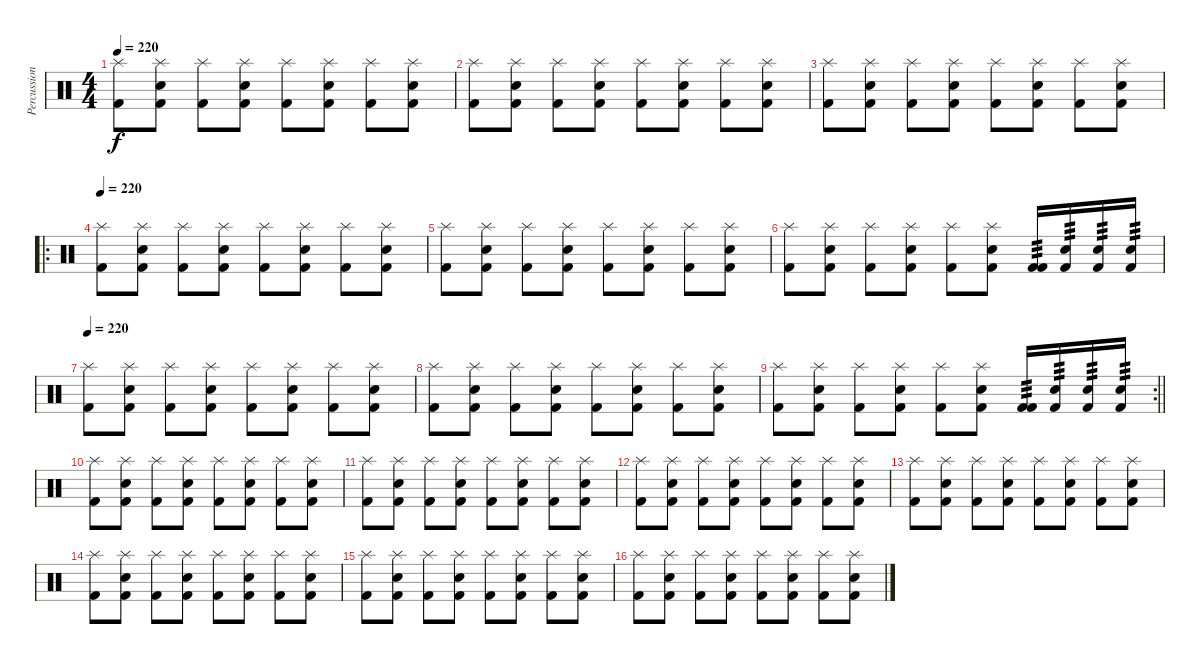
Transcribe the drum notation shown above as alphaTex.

\track ("Percussions" "Percussion") {instrument percussion}
\staff {score}
\articulation defaults
\ts (4 4)
\tempo 220
\clef neutral
\ks c
("Kick (hit) 2" "Splash (hit)").8{dy f} ("Kick (hit) 2" "Electric Snare (hit)" "Splash (hit)").8 ("Kick (hit) 2" "Splash (hit)").8 ("Kick (hit) 2" "Electric Snare (hit)" "Splash (hit)").8 ("Kick (hit) 2" "Splash (hit)").8 ("Kick (hit) 2" "Electric Snare (hit)" "Splash (hit)").8 ("Kick (hit) 2" "Splash (hit)").8 ("Kick (hit) 2" "Electric Snare (hit)" "Splash (hit)").8 |
("Kick (hit) 2" "Splash (hit)").8 ("Kick (hit) 2" "Electric Snare (hit)" "Splash (hit)").8 ("Kick (hit) 2" "Splash (hit)").8 ("Kick (hit) 2" "Electric Snare (hit)" "Splash (hit)").8 ("Kick (hit) 2" "Splash (hit)").8 ("Kick (hit) 2" "Electric Snare (hit)" "Splash (hit)").8 ("Kick (hit) 2" "Splash (hit)").8 ("Kick (hit) 2" "Electric Snare (hit)" "Splash (hit)").8 |
("Kick (hit) 2" "Splash (hit)").8 ("Kick (hit) 2" "Electric Snare (hit)" "Splash (hit)").8 ("Kick (hit) 2" "Splash (hit)").8 ("Kick (hit) 2" "Electric Snare (hit)" "Splash (hit)").8 ("Kick (hit) 2" "Splash (hit)").8 ("Kick (hit) 2" "Electric Snare (hit)" "Splash (hit)").8 ("Kick (hit) 2" "Splash (hit)").8 ("Kick (hit) 2" "Electric Snare (hit)" "Splash (hit)").8 |
\ro
\tempo 220
("Kick (hit) 2" "Splash (hit)").8 ("Kick (hit) 2" "Electric Snare (hit)" "Splash (hit)").8 ("Kick (hit) 2" "Splash (hit)").8 ("Kick (hit) 2" "Electric Snare (hit)" "Splash (hit)").8 ("Kick (hit) 2" "Splash (hit)").8 ("Kick (hit) 2" "Electric Snare (hit)" "Splash (hit)").8 ("Kick (hit) 2" "Splash (hit)").8 ("Kick (hit) 2" "Electric Snare (hit)" "Splash (hit)").8 |
("Kick (hit) 2" "Splash (hit)").8 ("Kick (hit) 2" "Electric Snare (hit)" "Splash (hit)").8 ("Kick (hit) 2" "Splash (hit)").8 ("Kick (hit) 2" "Electric Snare (hit)" "Splash (hit)").8 ("Kick (hit) 2" "Splash (hit)").8 ("Kick (hit) 2" "Electric Snare (hit)" "Splash (hit)").8 ("Kick (hit) 2" "Splash (hit)").8 ("Kick (hit) 2" "Electric Snare (hit)" "Splash (hit)").8 |
("Kick (hit) 2" "Splash (hit)").8 ("Kick (hit) 2" "Electric Snare (hit)" "Splash (hit)").8 ("Kick (hit) 2" "Splash (hit)").8 ("Kick (hit) 2" "Electric Snare (hit)" "Splash (hit)").8 ("Kick (hit) 2" "Splash (hit)").8 ("Kick (hit) 2" "Electric Snare (hit)" "Splash (hit)").8 ("Kick (hit) 2" "Kick (hit) 2").16{tp 3} ("Kick (hit) 2" "Electric Snare (hit)").16{tp 3} ("Kick (hit) 2" "Electric Snare (hit)").16{tp 3} ("Kick (hit) 2" "Electric Snare (hit)").16{tp 3} |
\tempo 220
("Kick (hit) 2" "Splash (hit)").8 ("Kick (hit) 2" "Electric Snare (hit)" "Splash (hit)").8 ("Kick (hit) 2" "Splash (hit)").8 ("Kick (hit) 2" "Electric Snare (hit)" "Splash (hit)").8 ("Kick (hit) 2" "Splash (hit)").8 ("Kick (hit) 2" "Electric Snare (hit)" "Splash (hit)").8 ("Kick (hit) 2" "Splash (hit)").8 ("Kick (hit) 2" "Electric Snare (hit)" "Splash (hit)").8 |
("Kick (hit) 2" "Splash (hit)").8 ("Kick (hit) 2" "Electric Snare (hit)" "Splash (hit)").8 ("Kick (hit) 2" "Splash (hit)").8 ("Kick (hit) 2" "Electric Snare (hit)" "Splash (hit)").8 ("Kick (hit) 2" "Splash (hit)").8 ("Kick (hit) 2" "Electric Snare (hit)" "Splash (hit)").8 ("Kick (hit) 2" "Splash (hit)").8 ("Kick (hit) 2" "Electric Snare (hit)" "Splash (hit)").8 |
\rc 2
\barLineRight lightlight
("Kick (hit) 2" "Splash (hit)").8 ("Kick (hit) 2" "Electric Snare (hit)" "Splash (hit)").8 ("Kick (hit) 2" "Splash (hit)").8 ("Kick (hit) 2" "Electric Snare (hit)" "Splash (hit)").8 ("Kick (hit) 2" "Splash (hit)").8 ("Kick (hit) 2" "Electric Snare (hit)" "Splash (hit)").8 ("Kick (hit) 2" "Kick (hit) 2").16{tp 3} ("Kick (hit) 2" "Electric Snare (hit)").16{tp 3} ("Kick (hit) 2" "Electric Snare (hit)").16{tp 3} ("Kick (hit) 2" "Electric Snare (hit)").16{tp 3} |
("Kick (hit) 2" "Splash (hit)").8 ("Kick (hit) 2" "Electric Snare (hit)" "Splash (hit)").8 ("Kick (hit) 2" "Splash (hit)").8 ("Kick (hit) 2" "Electric Snare (hit)" "Splash (hit)").8 ("Kick (hit) 2" "Splash (hit)").8 ("Kick (hit) 2" "Electric Snare (hit)" "Splash (hit)").8 ("Kick (hit) 2" "Splash (hit)").8 ("Kick (hit) 2" "Electric Snare (hit)" "Splash (hit)").8 |
("Kick (hit) 2" "Splash (hit)").8 ("Kick (hit) 2" "Electric Snare (hit)" "Splash (hit)").8 ("Kick (hit) 2" "Splash (hit)").8 ("Kick (hit) 2" "Electric Snare (hit)" "Splash (hit)").8 ("Kick (hit) 2" "Splash (hit)").8 ("Kick (hit) 2" "Electric Snare (hit)" "Splash (hit)").8 ("Kick (hit) 2" "Splash (hit)").8 ("Kick (hit) 2" "Electric Snare (hit)" "Splash (hit)").8 |
("Kick (hit) 2" "Splash (hit)").8 ("Kick (hit) 2" "Electric Snare (hit)" "Splash (hit)").8 ("Kick (hit) 2" "Splash (hit)").8 ("Kick (hit) 2" "Electric Snare (hit)" "Splash (hit)").8 ("Kick (hit) 2" "Splash (hit)").8 ("Kick (hit) 2" "Electric Snare (hit)" "Splash (hit)").8 ("Kick (hit) 2" "Splash (hit)").8 ("Kick (hit) 2" "Electric Snare (hit)" "Splash (hit)").8 |
("Kick (hit) 2" "Splash (hit)").8 ("Kick (hit) 2" "Electric Snare (hit)" "Splash (hit)").8 ("Kick (hit) 2" "Splash (hit)").8 ("Kick (hit) 2" "Electric Snare (hit)" "Splash (hit)").8 ("Kick (hit) 2" "Splash (hit)").8 ("Kick (hit) 2" "Electric Snare (hit)" "Splash (hit)").8 ("Kick (hit) 2" "Splash (hit)").8 ("Kick (hit) 2" "Electric Snare (hit)" "Splash (hit)").8 |
("Kick (hit) 2" "Splash (hit)").8 ("Kick (hit) 2" "Electric Snare (hit)" "Splash (hit)").8 ("Kick (hit) 2" "Splash (hit)").8 ("Kick (hit) 2" "Electric Snare (hit)" "Splash (hit)").8 ("Kick (hit) 2" "Splash (hit)").8 ("Kick (hit) 2" "Electric Snare (hit)" "Splash (hit)").8 ("Kick (hit) 2" "Splash (hit)").8 ("Kick (hit) 2" "Electric Snare (hit)" "Splash (hit)").8 |
("Kick (hit) 2" "Splash (hit)").8 ("Kick (hit) 2" "Electric Snare (hit)" "Splash (hit)").8 ("Kick (hit) 2" "Splash (hit)").8 ("Kick (hit) 2" "Electric Snare (hit)" "Splash (hit)").8 ("Kick (hit) 2" "Splash (hit)").8 ("Kick (hit) 2" "Electric Snare (hit)" "Splash (hit)").8 ("Kick (hit) 2" "Splash (hit)").8 ("Kick (hit) 2" "Electric Snare (hit)" "Splash (hit)").8 |
("Kick (hit) 2" "Splash (hit)").8 ("Kick (hit) 2" "Electric Snare (hit)" "Splash (hit)").8 ("Kick (hit) 2" "Splash (hit)").8 ("Kick (hit) 2" "Electric Snare (hit)" "Splash (hit)").8 ("Kick (hit) 2" "Splash (hit)").8 ("Kick (hit) 2" "Electric Snare (hit)" "Splash (hit)").8 ("Kick (hit) 2" "Splash (hit)").8 ("Kick (hit) 2" "Electric Snare (hit)" "Splash (hit)").8
